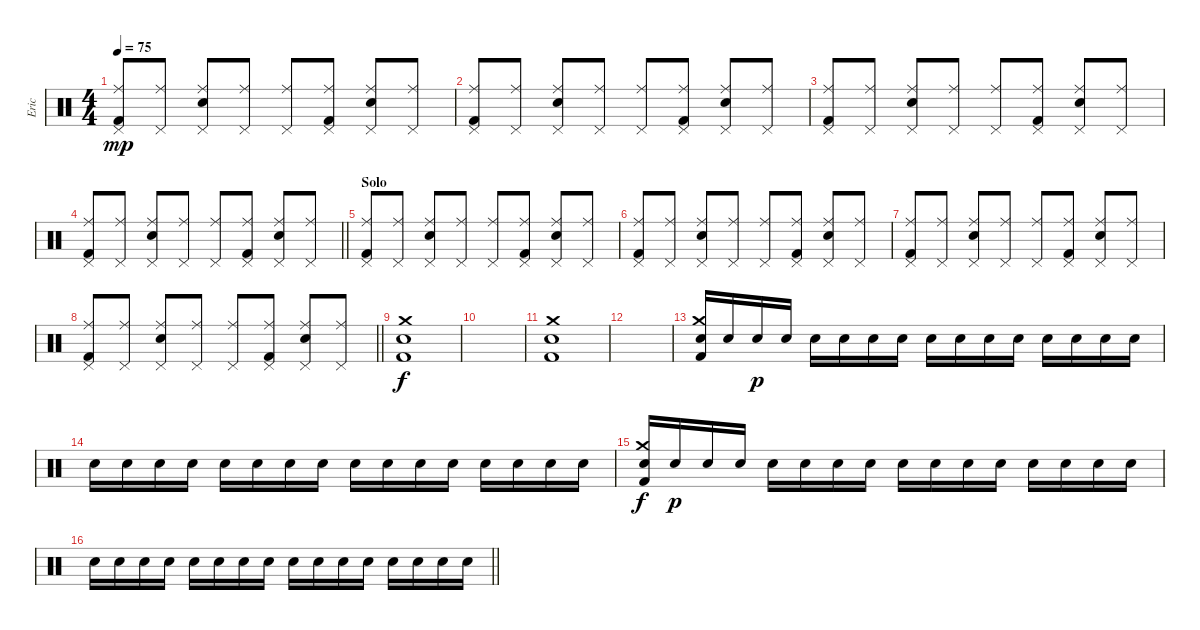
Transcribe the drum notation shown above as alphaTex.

\track ("Eric" "Eric") {instrument percussion}
\staff {score}
\articulation defaults
\ts (4 4)
\tempo 75
\clef neutral
\ks c
("Ride (middle)" "Pedal Hi-Hat (hit)" "Kick (hit) 2").8{dy mp} ("Ride (middle)" "Pedal Hi-Hat (hit)").8 ("Ride (middle)" "Pedal Hi-Hat (hit)" "Snare (hit) 2").8 ("Ride (middle)" "Pedal Hi-Hat (hit)").8 ("Ride (middle)" "Pedal Hi-Hat (hit)").8 ("Ride (middle)" "Pedal Hi-Hat (hit)" "Kick (hit) 2").8 ("Ride (middle)" "Pedal Hi-Hat (hit)" "Snare (hit) 2").8 ("Ride (middle)" "Pedal Hi-Hat (hit)").8 |
("Ride (middle)" "Pedal Hi-Hat (hit)" "Kick (hit) 2").8 ("Ride (middle)" "Pedal Hi-Hat (hit)").8 ("Ride (middle)" "Pedal Hi-Hat (hit)" "Snare (hit) 2").8 ("Ride (middle)" "Pedal Hi-Hat (hit)").8 ("Ride (middle)" "Pedal Hi-Hat (hit)").8 ("Ride (middle)" "Pedal Hi-Hat (hit)" "Kick (hit) 2").8 ("Ride (middle)" "Pedal Hi-Hat (hit)" "Snare (hit) 2").8 ("Ride (middle)" "Pedal Hi-Hat (hit)").8 |
("Ride (middle)" "Pedal Hi-Hat (hit)" "Kick (hit) 2").8 ("Ride (middle)" "Pedal Hi-Hat (hit)").8 ("Ride (middle)" "Pedal Hi-Hat (hit)" "Snare (hit) 2").8 ("Ride (middle)" "Pedal Hi-Hat (hit)").8 ("Ride (middle)" "Pedal Hi-Hat (hit)").8 ("Ride (middle)" "Pedal Hi-Hat (hit)" "Kick (hit) 2").8 ("Ride (middle)" "Pedal Hi-Hat (hit)" "Snare (hit) 2").8 ("Ride (middle)" "Pedal Hi-Hat (hit)").8 |
\barLineRight lightlight
("Ride (middle)" "Pedal Hi-Hat (hit)" "Kick (hit) 2").8 ("Ride (middle)" "Pedal Hi-Hat (hit)").8 ("Ride (middle)" "Pedal Hi-Hat (hit)" "Snare (hit) 2").8 ("Ride (middle)" "Pedal Hi-Hat (hit)").8 ("Ride (middle)" "Pedal Hi-Hat (hit)").8 ("Ride (middle)" "Pedal Hi-Hat (hit)" "Kick (hit) 2").8 ("Ride (middle)" "Pedal Hi-Hat (hit)" "Snare (hit) 2").8 ("Ride (middle)" "Pedal Hi-Hat (hit)").8 |
\section ("" "Solo")
("Ride (middle)" "Pedal Hi-Hat (hit)" "Kick (hit) 2").8 ("Ride (middle)" "Pedal Hi-Hat (hit)").8 ("Ride (middle)" "Pedal Hi-Hat (hit)" "Snare (hit) 2").8 ("Ride (middle)" "Pedal Hi-Hat (hit)").8 ("Ride (middle)" "Pedal Hi-Hat (hit)").8 ("Ride (middle)" "Pedal Hi-Hat (hit)" "Kick (hit) 2").8 ("Ride (middle)" "Pedal Hi-Hat (hit)" "Snare (hit) 2").8 ("Ride (middle)" "Pedal Hi-Hat (hit)").8 |
("Ride (middle)" "Pedal Hi-Hat (hit)" "Kick (hit) 2").8 ("Ride (middle)" "Pedal Hi-Hat (hit)").8 ("Ride (middle)" "Pedal Hi-Hat (hit)" "Snare (hit) 2").8 ("Ride (middle)" "Pedal Hi-Hat (hit)").8 ("Ride (middle)" "Pedal Hi-Hat (hit)").8 ("Ride (middle)" "Pedal Hi-Hat (hit)" "Kick (hit) 2").8 ("Ride (middle)" "Pedal Hi-Hat (hit)" "Snare (hit) 2").8 ("Ride (middle)" "Pedal Hi-Hat (hit)").8 |
("Ride (middle)" "Pedal Hi-Hat (hit)" "Kick (hit) 2").8 ("Ride (middle)" "Pedal Hi-Hat (hit)").8 ("Ride (middle)" "Pedal Hi-Hat (hit)" "Snare (hit) 2").8 ("Ride (middle)" "Pedal Hi-Hat (hit)").8 ("Ride (middle)" "Pedal Hi-Hat (hit)").8 ("Ride (middle)" "Pedal Hi-Hat (hit)" "Kick (hit) 2").8 ("Ride (middle)" "Pedal Hi-Hat (hit)" "Snare (hit) 2").8 ("Ride (middle)" "Pedal Hi-Hat (hit)").8 |
\barLineRight lightlight
("Ride (middle)" "Pedal Hi-Hat (hit)" "Kick (hit) 2").8 ("Ride (middle)" "Pedal Hi-Hat (hit)").8 ("Ride (middle)" "Pedal Hi-Hat (hit)" "Snare (hit) 2").8 ("Ride (middle)" "Pedal Hi-Hat (hit)").8 ("Ride (middle)" "Pedal Hi-Hat (hit)").8 ("Ride (middle)" "Pedal Hi-Hat (hit)" "Kick (hit) 2").8 ("Ride (middle)" "Pedal Hi-Hat (hit)" "Snare (hit) 2").8 ("Ride (middle)" "Pedal Hi-Hat (hit)").8 |
\section ("" "")
("Crash medium (hit)" "Electric Snare (hit)" "Kick (hit) 2").1{dy f} |
|
("Crash medium (hit)" "Electric Snare (hit)" "Kick (hit) 2").1 |
|
("Crash medium (hit)" "Electric Snare (hit)" "Kick (hit) 2").16 "Electric Snare (hit)".16 "Electric Snare (hit)".16{dy p} "Electric Snare (hit)".16 "Electric Snare (hit)".16 "Electric Snare (hit)".16 "Electric Snare (hit)".16 "Electric Snare (hit)".16 "Electric Snare (hit)".16 "Electric Snare (hit)".16 "Electric Snare (hit)".16 "Electric Snare (hit)".16 "Electric Snare (hit)".16 "Electric Snare (hit)".16 "Electric Snare (hit)".16 "Electric Snare (hit)".16 |
"Electric Snare (hit)".16 "Electric Snare (hit)".16 "Electric Snare (hit)".16 "Electric Snare (hit)".16 "Electric Snare (hit)".16 "Electric Snare (hit)".16 "Electric Snare (hit)".16 "Electric Snare (hit)".16 "Electric Snare (hit)".16 "Electric Snare (hit)".16 "Electric Snare (hit)".16 "Electric Snare (hit)".16 "Electric Snare (hit)".16 "Electric Snare (hit)".16 "Electric Snare (hit)".16 "Electric Snare (hit)".16 |
("Crash medium (hit)" "Electric Snare (hit)" "Kick (hit) 2").16{dy f} "Electric Snare (hit)".16{dy p} "Electric Snare (hit)".16 "Electric Snare (hit)".16 "Electric Snare (hit)".16 "Electric Snare (hit)".16 "Electric Snare (hit)".16 "Electric Snare (hit)".16 "Electric Snare (hit)".16 "Electric Snare (hit)".16 "Electric Snare (hit)".16 "Electric Snare (hit)".16 "Electric Snare (hit)".16 "Electric Snare (hit)".16 "Electric Snare (hit)".16 "Electric Snare (hit)".16 |
\barLineRight lightlight "Electric Snare (hit)".16 "Electric Snare (hit)".16 "Electric Snare (hit)".16 "Electric Snare (hit)".16 "Electric Snare (hit)".16 "Electric Snare (hit)".16 "Electric Snare (hit)".16 "Electric Snare (hit)".16 "Electric Snare (hit)".16 "Electric Snare (hit)".16 "Electric Snare (hit)".16 "Electric Snare (hit)".16 "Electric Snare (hit)".16 "Electric Snare (hit)".16 "Electric Snare (hit)".16 "Electric Snare (hit)".16
